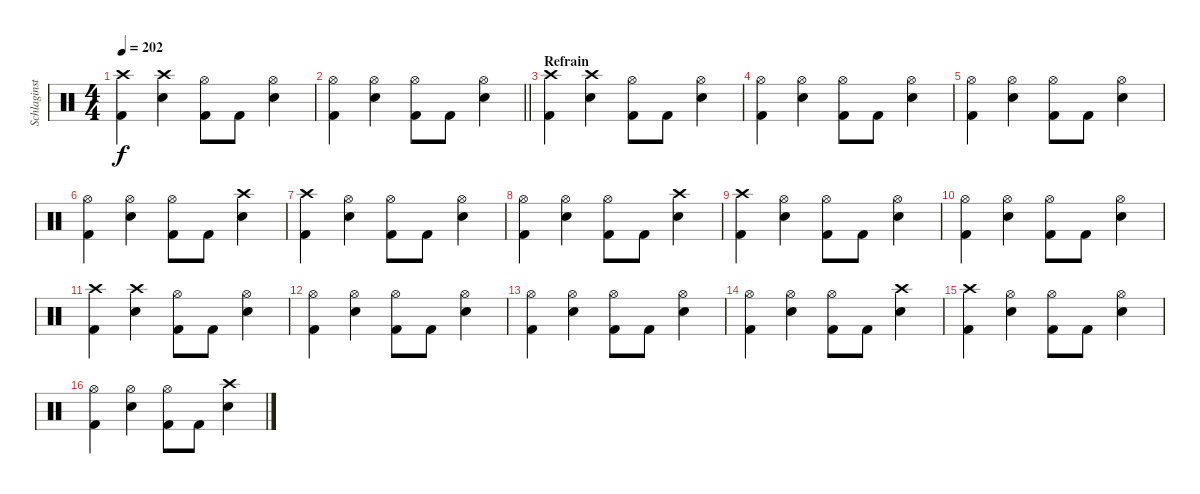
\track ("Schlaginstrumente - Auswahl" "Schlaginst") {instrument percussion bank 1}
\staff {score}
\articulation defaults
\ts (4 4)
\tempo 202
\clef neutral
\ks c
("Crash high (hit)" "Kick (hit) 2").4{dy f} ("Crash high (hit)" "Snare (hit) 2").4 ("Hi-Hat (open)" "Kick (hit) 2").8 "Kick (hit) 2".8 ("Hi-Hat (open)" "Snare (hit) 2").4 |
\barLineRight lightlight
("Hi-Hat (open)" "Kick (hit) 2").4 ("Hi-Hat (open)" "Snare (hit) 2").4 ("Hi-Hat (open)" "Kick (hit) 2").8 "Kick (hit) 2".8 ("Hi-Hat (open)" "Snare (hit) 2").4 |
\section ("" "Refrain")
("Crash high (hit)" "Kick (hit) 2").4 ("Crash high (hit)" "Snare (hit) 2").4 ("Hi-Hat (open)" "Kick (hit) 2").8 "Kick (hit) 2".8 ("Hi-Hat (open)" "Snare (hit) 2").4 |
("Hi-Hat (open)" "Kick (hit) 2").4 ("Hi-Hat (open)" "Snare (hit) 2").4 ("Hi-Hat (open)" "Kick (hit) 2").8 "Kick (hit) 2".8 ("Hi-Hat (open)" "Snare (hit) 2").4 |
("Hi-Hat (open)" "Kick (hit) 2").4 ("Hi-Hat (open)" "Snare (hit) 2").4 ("Hi-Hat (open)" "Kick (hit) 2").8 "Kick (hit) 2".8 ("Hi-Hat (open)" "Snare (hit) 2").4 |
("Hi-Hat (open)" "Kick (hit) 2").4 ("Hi-Hat (open)" "Snare (hit) 2").4 ("Hi-Hat (open)" "Kick (hit) 2").8 "Kick (hit) 2".8 ("Crash high (hit)" "Snare (hit) 2").4 |
("Crash high (hit)" "Kick (hit) 2").4 ("Hi-Hat (open)" "Snare (hit) 2").4 ("Hi-Hat (open)" "Kick (hit) 2").8 "Kick (hit) 2".8 ("Hi-Hat (open)" "Snare (hit) 2").4 |
("Hi-Hat (open)" "Kick (hit) 2").4 ("Hi-Hat (open)" "Snare (hit) 2").4 ("Hi-Hat (open)" "Kick (hit) 2").8 "Kick (hit) 2".8 ("Crash high (hit)" "Snare (hit) 2").4 |
("Crash high (hit)" "Kick (hit) 2").4 ("Hi-Hat (open)" "Snare (hit) 2").4 ("Hi-Hat (open)" "Kick (hit) 2").8 "Kick (hit) 2".8 ("Hi-Hat (open)" "Snare (hit) 2").4 |
("Hi-Hat (open)" "Kick (hit) 2").4 ("Hi-Hat (open)" "Snare (hit) 2").4 ("Hi-Hat (open)" "Kick (hit) 2").8 "Kick (hit) 2".8 ("Hi-Hat (open)" "Snare (hit) 2").4 |
("Crash high (hit)" "Kick (hit) 2").4 ("Crash high (hit)" "Snare (hit) 2").4 ("Hi-Hat (open)" "Kick (hit) 2").8 "Kick (hit) 2".8 ("Hi-Hat (open)" "Snare (hit) 2").4 |
("Hi-Hat (open)" "Kick (hit) 2").4 ("Hi-Hat (open)" "Snare (hit) 2").4 ("Hi-Hat (open)" "Kick (hit) 2").8 "Kick (hit) 2".8 ("Hi-Hat (open)" "Snare (hit) 2").4 |
("Hi-Hat (open)" "Kick (hit) 2").4 ("Hi-Hat (open)" "Snare (hit) 2").4 ("Hi-Hat (open)" "Kick (hit) 2").8 "Kick (hit) 2".8 ("Hi-Hat (open)" "Snare (hit) 2").4 |
("Hi-Hat (open)" "Kick (hit) 2").4 ("Hi-Hat (open)" "Snare (hit) 2").4 ("Hi-Hat (open)" "Kick (hit) 2").8 "Kick (hit) 2".8 ("Crash high (hit)" "Snare (hit) 2").4 |
("Crash high (hit)" "Kick (hit) 2").4 ("Hi-Hat (open)" "Snare (hit) 2").4 ("Hi-Hat (open)" "Kick (hit) 2").8 "Kick (hit) 2".8 ("Hi-Hat (open)" "Snare (hit) 2").4 |
("Hi-Hat (open)" "Kick (hit) 2").4 ("Hi-Hat (open)" "Snare (hit) 2").4 ("Hi-Hat (open)" "Kick (hit) 2").8 "Kick (hit) 2".8 ("Crash high (hit)" "Snare (hit) 2").4
